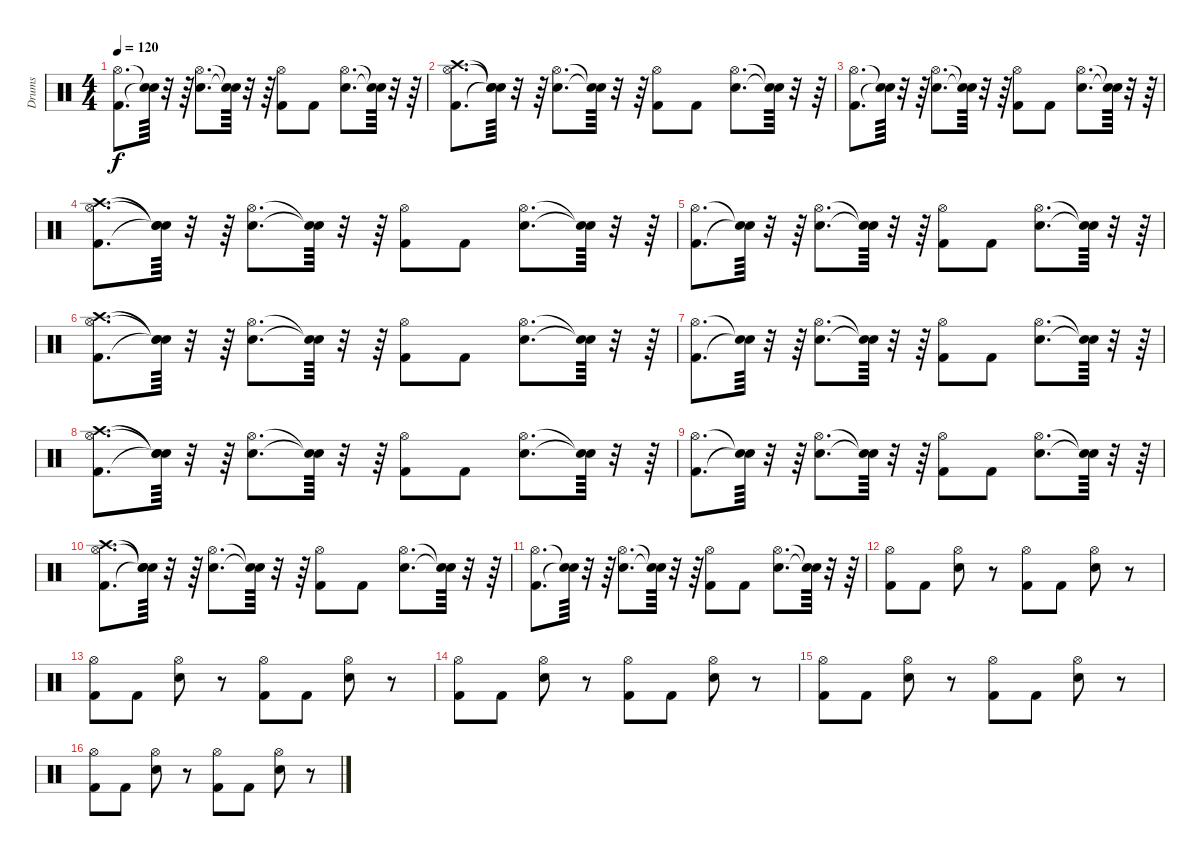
\track ("Drums" "Drums") {instrument percussion}
\staff {score}
\articulation defaults
\ts (4 4)
\tempo 120
\clef neutral
\ks c
("Kick (hit) 2" "Hi-Hat (open)").8{d dy f} ("Snare (hit)"{t} "Snare (hit)"{t}).64 r.32 r.64 ("Snare (hit) 2" "Hi-Hat (open)").8{d} ("Snare (hit)"{t} "Snare (hit)"{t}).64 r.32 r.64 ("Kick (hit) 2" "Hi-Hat (open)").8 "Kick (hit) 2".8 ("Snare (hit) 2" "Hi-Hat (open)").8{d} ("Snare (hit)"{t} "Snare (hit)"{t}).64 r.32 r.64 |
("Kick (hit) 2" "Hi-Hat (open)" "Crash high (hit)").8{d} ("Snare (hit)"{t} "Snare (hit)"{t} "Snare (hit)"{t}).64 r.32 r.64 ("Snare (hit) 2" "Hi-Hat (open)").8{d} ("Snare (hit)"{t} "Snare (hit)"{t}).64 r.32 r.64 ("Kick (hit) 2" "Hi-Hat (open)").8 "Kick (hit) 2".8 ("Snare (hit) 2" "Hi-Hat (open)").8{d} ("Snare (hit)"{t} "Snare (hit)"{t}).64 r.32 r.64 |
("Kick (hit) 2" "Hi-Hat (open)").8{d} ("Snare (hit)"{t} "Snare (hit)"{t}).64 r.32 r.64 ("Snare (hit) 2" "Hi-Hat (open)").8{d} ("Snare (hit)"{t} "Snare (hit)"{t}).64 r.32 r.64 ("Kick (hit) 2" "Hi-Hat (open)").8 "Kick (hit) 2".8 ("Snare (hit) 2" "Hi-Hat (open)").8{d} ("Snare (hit)"{t} "Snare (hit)"{t}).64 r.32 r.64 |
("Kick (hit) 2" "Hi-Hat (open)" "Crash high (hit)").8{d} ("Snare (hit)"{t} "Snare (hit)"{t} "Snare (hit)"{t}).64 r.32 r.64 ("Snare (hit) 2" "Hi-Hat (open)").8{d} ("Snare (hit)"{t} "Snare (hit)"{t}).64 r.32 r.64 ("Kick (hit) 2" "Hi-Hat (open)").8 "Kick (hit) 2".8 ("Snare (hit) 2" "Hi-Hat (open)").8{d} ("Snare (hit)"{t} "Snare (hit)"{t}).64 r.32 r.64 |
("Kick (hit) 2" "Hi-Hat (open)").8{d} ("Snare (hit)"{t} "Snare (hit)"{t}).64 r.32 r.64 ("Snare (hit) 2" "Hi-Hat (open)").8{d} ("Snare (hit)"{t} "Snare (hit)"{t}).64 r.32 r.64 ("Kick (hit) 2" "Hi-Hat (open)").8 "Kick (hit) 2".8 ("Snare (hit) 2" "Hi-Hat (open)").8{d} ("Snare (hit)"{t} "Snare (hit)"{t}).64 r.32 r.64 |
("Kick (hit) 2" "Hi-Hat (open)" "Crash high (hit)").8{d} ("Snare (hit)"{t} "Snare (hit)"{t} "Snare (hit)"{t}).64 r.32 r.64 ("Snare (hit) 2" "Hi-Hat (open)").8{d} ("Snare (hit)"{t} "Snare (hit)"{t}).64 r.32 r.64 ("Kick (hit) 2" "Hi-Hat (open)").8 "Kick (hit) 2".8 ("Snare (hit) 2" "Hi-Hat (open)").8{d} ("Snare (hit)"{t} "Snare (hit)"{t}).64 r.32 r.64 |
("Kick (hit) 2" "Hi-Hat (open)").8{d} ("Snare (hit)"{t} "Snare (hit)"{t}).64 r.32 r.64 ("Snare (hit) 2" "Hi-Hat (open)").8{d} ("Snare (hit)"{t} "Snare (hit)"{t}).64 r.32 r.64 ("Kick (hit) 2" "Hi-Hat (open)").8 "Kick (hit) 2".8 ("Snare (hit) 2" "Hi-Hat (open)").8{d} ("Snare (hit)"{t} "Snare (hit)"{t}).64 r.32 r.64 |
("Kick (hit) 2" "Hi-Hat (open)" "Crash high (hit)").8{d} ("Snare (hit)"{t} "Snare (hit)"{t} "Snare (hit)"{t}).64 r.32 r.64 ("Snare (hit) 2" "Hi-Hat (open)").8{d} ("Snare (hit)"{t} "Snare (hit)"{t}).64 r.32 r.64 ("Kick (hit) 2" "Hi-Hat (open)").8 "Kick (hit) 2".8 ("Snare (hit) 2" "Hi-Hat (open)").8{d} ("Snare (hit)"{t} "Snare (hit)"{t}).64 r.32 r.64 |
("Kick (hit) 2" "Hi-Hat (open)").8{d} ("Snare (hit)"{t} "Snare (hit)"{t}).64 r.32 r.64 ("Snare (hit) 2" "Hi-Hat (open)").8{d} ("Snare (hit)"{t} "Snare (hit)"{t}).64 r.32 r.64 ("Kick (hit) 2" "Hi-Hat (open)").8 "Kick (hit) 2".8 ("Snare (hit) 2" "Hi-Hat (open)").8{d} ("Snare (hit)"{t} "Snare (hit)"{t}).64 r.32 r.64 |
("Kick (hit) 2" "Hi-Hat (open)" "Crash high (hit)").8{d} ("Snare (hit)"{t} "Snare (hit)"{t} "Snare (hit)"{t}).64 r.32 r.64 ("Snare (hit) 2" "Hi-Hat (open)").8{d} ("Snare (hit)"{t} "Snare (hit)"{t}).64 r.32 r.64 ("Kick (hit) 2" "Hi-Hat (open)").8 "Kick (hit) 2".8 ("Snare (hit) 2" "Hi-Hat (open)").8{d} ("Snare (hit)"{t} "Snare (hit)"{t}).64 r.32 r.64 |
("Kick (hit) 2" "Hi-Hat (open)").8{d} ("Snare (hit)"{t} "Snare (hit)"{t}).64 r.32 r.64 ("Snare (hit) 2" "Hi-Hat (open)").8{d} ("Snare (hit)"{t} "Snare (hit)"{t}).64 r.32 r.64 ("Kick (hit) 2" "Hi-Hat (open)").8 "Kick (hit) 2".8 ("Snare (hit) 2" "Hi-Hat (open)").8{d} ("Snare (hit)"{t} "Snare (hit)"{t}).64 r.32 r.64 |
("Kick (hit) 2" "Hi-Hat (open)").8 "Kick (hit) 2".8 ("Snare (hit) 2" "Hi-Hat (open)").8 r.8 ("Kick (hit) 2" "Hi-Hat (open)").8 "Kick (hit) 2".8 ("Snare (hit) 2" "Hi-Hat (open)").8 r.8 |
("Kick (hit) 2" "Hi-Hat (open)").8 "Kick (hit) 2".8 ("Snare (hit) 2" "Hi-Hat (open)").8 r.8 ("Kick (hit) 2" "Hi-Hat (open)").8 "Kick (hit) 2".8 ("Snare (hit) 2" "Hi-Hat (open)").8 r.8 |
("Kick (hit) 2" "Hi-Hat (open)").8 "Kick (hit) 2".8 ("Snare (hit) 2" "Hi-Hat (open)").8 r.8 ("Kick (hit) 2" "Hi-Hat (open)").8 "Kick (hit) 2".8 ("Snare (hit) 2" "Hi-Hat (open)").8 r.8 |
("Kick (hit) 2" "Hi-Hat (open)").8 "Kick (hit) 2".8 ("Snare (hit) 2" "Hi-Hat (open)").8 r.8 ("Kick (hit) 2" "Hi-Hat (open)").8 "Kick (hit) 2".8 ("Snare (hit) 2" "Hi-Hat (open)").8 r.8 |
("Kick (hit) 2" "Hi-Hat (open)").8 "Kick (hit) 2".8 ("Snare (hit) 2" "Hi-Hat (open)").8 r.8 ("Kick (hit) 2" "Hi-Hat (open)").8 "Kick (hit) 2".8 ("Snare (hit) 2" "Hi-Hat (open)").8 r.8
